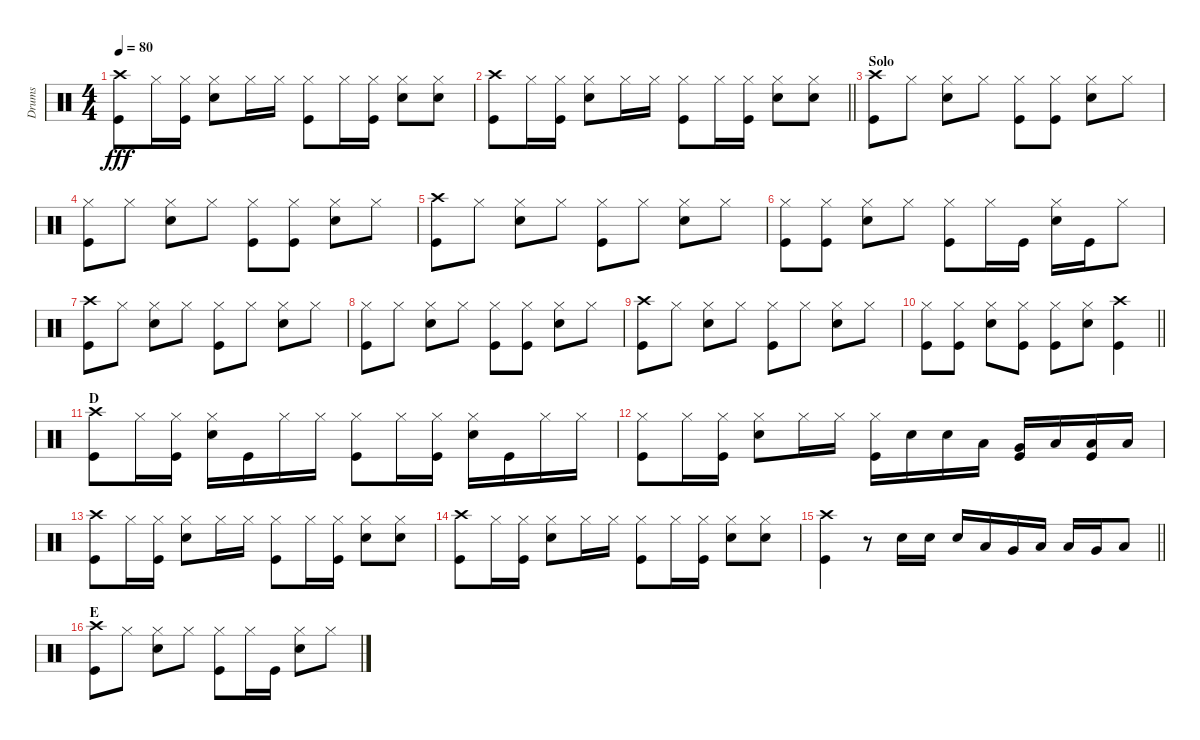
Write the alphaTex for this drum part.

\track ("Drums" "Drums") {instrument percussion}
\staff {score}
\articulation defaults
\ts (4 4)
\tempo 80
\clef neutral
\ks c
("Crash high (hit)" "Kick (hit)").8{dy fff} "Hi-Hat (closed)".16 ("Hi-Hat (closed)" "Kick (hit)").16 ("Hi-Hat (closed)" "Snare (hit) 2").8 "Hi-Hat (closed)".16 "Hi-Hat (closed)".16 ("Hi-Hat (closed)" "Kick (hit)").8 "Hi-Hat (closed)".16 ("Hi-Hat (closed)" "Kick (hit)").16 ("Hi-Hat (closed)" "Snare (hit) 2").8 ("Hi-Hat (closed)" "Snare (hit) 2").8 |
\barLineRight lightlight
("Crash high (hit)" "Kick (hit)").8 "Hi-Hat (closed)".16 ("Hi-Hat (closed)" "Kick (hit)").16 ("Hi-Hat (closed)" "Snare (hit) 2").8 "Hi-Hat (closed)".16 "Hi-Hat (closed)".16 ("Hi-Hat (closed)" "Kick (hit)").8 "Hi-Hat (closed)".16 ("Hi-Hat (closed)" "Kick (hit)").16 ("Hi-Hat (closed)" "Snare (hit) 2").8 ("Hi-Hat (closed)" "Snare (hit) 2").8 |
\section ("" "Solo")
("Crash high (hit)" "Kick (hit)").8 "Hi-Hat (closed)".8 ("Hi-Hat (closed)" "Snare (hit) 2").8 "Hi-Hat (closed)".8 ("Hi-Hat (closed)" "Kick (hit)").8 ("Hi-Hat (closed)" "Kick (hit)").8 ("Hi-Hat (closed)" "Snare (hit) 2").8 "Hi-Hat (closed)".8 |
("Hi-Hat (closed)" "Kick (hit)").8 "Hi-Hat (closed)".8 ("Hi-Hat (closed)" "Snare (hit) 2").8 "Hi-Hat (closed)".8 ("Hi-Hat (closed)" "Kick (hit)").8 ("Hi-Hat (closed)" "Kick (hit)").8 ("Hi-Hat (closed)" "Snare (hit) 2").8 "Hi-Hat (closed)".8 |
("Crash high (hit)" "Kick (hit)").8 "Hi-Hat (closed)".8 ("Hi-Hat (closed)" "Snare (hit) 2").8 "Hi-Hat (closed)".8 ("Hi-Hat (closed)" "Kick (hit)").8 "Hi-Hat (closed)".8 ("Hi-Hat (closed)" "Snare (hit) 2").8 "Hi-Hat (closed)".8 |
("Hi-Hat (closed)" "Kick (hit)").8 ("Hi-Hat (closed)" "Kick (hit)").8 ("Hi-Hat (closed)" "Snare (hit) 2").8 "Hi-Hat (closed)".8 ("Hi-Hat (closed)" "Kick (hit)").8 "Hi-Hat (closed)".16 "Kick (hit)".16 ("Hi-Hat (closed)" "Snare (hit) 2").16 "Kick (hit)".16 "Hi-Hat (closed)".8 |
("Crash high (hit)" "Kick (hit)").8 "Hi-Hat (closed)".8 ("Hi-Hat (closed)" "Snare (hit) 2").8 "Hi-Hat (closed)".8 ("Hi-Hat (closed)" "Kick (hit)").8 "Hi-Hat (closed)".8 ("Hi-Hat (closed)" "Snare (hit) 2").8 "Hi-Hat (closed)".8 |
("Hi-Hat (closed)" "Kick (hit)").8 "Hi-Hat (closed)".8 ("Hi-Hat (closed)" "Snare (hit) 2").8 "Hi-Hat (closed)".8 ("Hi-Hat (closed)" "Kick (hit)").8 ("Hi-Hat (closed)" "Kick (hit)").8 ("Hi-Hat (closed)" "Snare (hit) 2").8 "Hi-Hat (closed)".8 |
("Crash high (hit)" "Kick (hit)").8 "Hi-Hat (closed)".8 ("Hi-Hat (closed)" "Snare (hit) 2").8 "Hi-Hat (closed)".8 ("Hi-Hat (closed)" "Kick (hit)").8 "Hi-Hat (closed)".8 ("Hi-Hat (closed)" "Snare (hit) 2").8 "Hi-Hat (closed)".8 |
\barLineRight lightlight
("Hi-Hat (closed)" "Kick (hit)").8 ("Hi-Hat (closed)" "Kick (hit)").8 ("Hi-Hat (closed)" "Snare (hit) 2").8 ("Hi-Hat (closed)" "Kick (hit)").8 ("Hi-Hat (closed)" "Kick (hit)").8 ("Hi-Hat (closed)" "Snare (hit) 2").8 ("Crash high (hit)" "Kick (hit)").4 |
\section ("" "D")
("Crash high (hit)" "Kick (hit)").8 "Hi-Hat (closed)".16 ("Hi-Hat (closed)" "Kick (hit)").16 ("Hi-Hat (closed)" "Snare (hit) 2").16 "Kick (hit)".16 "Hi-Hat (closed)".16 "Hi-Hat (closed)".16 ("Hi-Hat (closed)" "Kick (hit)").8 "Hi-Hat (closed)".16 ("Hi-Hat (closed)" "Kick (hit)").16 ("Hi-Hat (closed)" "Snare (hit) 2").16 "Kick (hit)".16 "Hi-Hat (closed)".16 "Hi-Hat (closed)".16 |
("Hi-Hat (closed)" "Kick (hit)").8 "Hi-Hat (closed)".16 ("Hi-Hat (closed)" "Kick (hit)").16 ("Hi-Hat (closed)" "Snare (hit) 2").8 "Hi-Hat (closed)".16 "Hi-Hat (closed)".16 ("Hi-Hat (closed)" "Kick (hit)").16 "Snare (hit) 2".16 "Snare (hit) 2".16 "Low Tom (hit)".16 ("Very Low Tom (hit)" "Kick (hit)").16 "Low Tom (hit)".16 ("Low Floor Tom (hit)" "Kick (hit)").16 "Low Tom (hit)".16 |
("Crash high (hit)" "Kick (hit)").8 "Hi-Hat (closed)".16 ("Hi-Hat (closed)" "Kick (hit)").16 ("Hi-Hat (closed)" "Snare (hit) 2").8 "Hi-Hat (closed)".16 "Hi-Hat (closed)".16 ("Hi-Hat (closed)" "Kick (hit)").8 "Hi-Hat (closed)".16 ("Hi-Hat (closed)" "Kick (hit)").16 ("Hi-Hat (closed)" "Snare (hit) 2").8 ("Hi-Hat (closed)" "Snare (hit) 2").8 |
("Crash high (hit)" "Kick (hit)").8 "Hi-Hat (closed)".16 ("Hi-Hat (closed)" "Kick (hit)").16 ("Hi-Hat (closed)" "Snare (hit) 2").8 "Hi-Hat (closed)".16 "Hi-Hat (closed)".16 ("Hi-Hat (closed)" "Kick (hit)").8 "Hi-Hat (closed)".16 ("Hi-Hat (closed)" "Kick (hit)").16 ("Hi-Hat (closed)" "Snare (hit) 2").8 ("Hi-Hat (closed)" "Snare (hit) 2").8 |
\barLineRight lightlight
("Crash high (hit)" "Kick (hit)").4 r.8 "Snare (hit) 2".16 "Snare (hit) 2".16 "Snare (hit) 2".16 "Low Tom (hit)".16 "Very Low Tom (hit)".16 "Low Tom (hit)".16 "Low Floor Tom (hit)".16 "Very Low Tom (hit)".16 "Low Floor Tom (hit)".8 |
\section ("" "E")
("Crash high (hit)" "Kick (hit)").8 "Hi-Hat (closed)".8 ("Hi-Hat (closed)" "Snare (hit) 2").8 "Hi-Hat (closed)".8 ("Hi-Hat (closed)" "Kick (hit)").8 "Hi-Hat (closed)".16 "Kick (hit)".16 ("Hi-Hat (closed)" "Snare (hit) 2").8 "Hi-Hat (closed)".8
